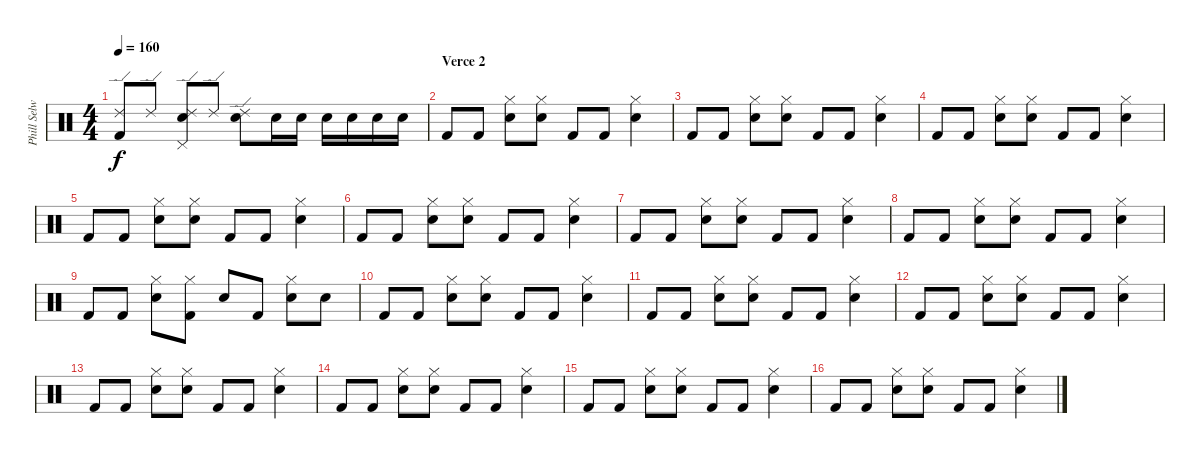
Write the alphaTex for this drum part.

\track ("Phill Selway" "Phill Selw") {instrument percussion}
\staff {score}
\articulation defaults
\ts (4 4)
\tempo 160
\clef neutral
\ks c
("Kick (hit) 2" "Ride (edge) 2").8{dy f} "Ride (edge) 2".8 ("Snare (hit) 2" "Pedal Hi-Hat (hit)" "Ride (edge) 2").8 "Ride (edge) 2".8 ("Snare (hit) 2" "Ride (edge) 2").8 "Snare (hit) 2".16 "Snare (hit) 2".16 "Snare (hit) 2".16 "Snare (hit) 2".16 "Snare (hit) 2".16 "Snare (hit) 2".16 |
\section ("" "Verce 2")
"Kick (hit) 2".8 "Kick (hit) 2".8 ("Snare (hit) 2" "Hi-Hat (closed)").8 ("Snare (hit) 2" "Hi-Hat (closed)").8 "Kick (hit) 2".8 "Kick (hit) 2".8 ("Snare (hit) 2" "Hi-Hat (closed)").4 |
"Kick (hit) 2".8 "Kick (hit) 2".8 ("Snare (hit) 2" "Hi-Hat (closed)").8 ("Snare (hit) 2" "Hi-Hat (closed)").8 "Kick (hit) 2".8 "Kick (hit) 2".8 ("Snare (hit) 2" "Hi-Hat (closed)").4 |
"Kick (hit) 2".8 "Kick (hit) 2".8 ("Snare (hit) 2" "Hi-Hat (closed)").8 ("Snare (hit) 2" "Hi-Hat (closed)").8 "Kick (hit) 2".8 "Kick (hit) 2".8 ("Snare (hit) 2" "Hi-Hat (closed)").4 |
"Kick (hit) 2".8 "Kick (hit) 2".8 ("Snare (hit) 2" "Hi-Hat (closed)").8 ("Snare (hit) 2" "Hi-Hat (closed)").8 "Kick (hit) 2".8 "Kick (hit) 2".8 ("Snare (hit) 2" "Hi-Hat (closed)").4 |
"Kick (hit) 2".8 "Kick (hit) 2".8 ("Snare (hit) 2" "Hi-Hat (closed)").8 ("Snare (hit) 2" "Hi-Hat (closed)").8 "Kick (hit) 2".8 "Kick (hit) 2".8 ("Snare (hit) 2" "Hi-Hat (closed)").4 |
"Kick (hit) 2".8 "Kick (hit) 2".8 ("Snare (hit) 2" "Hi-Hat (closed)").8 ("Snare (hit) 2" "Hi-Hat (closed)").8 "Kick (hit) 2".8 "Kick (hit) 2".8 ("Snare (hit) 2" "Hi-Hat (closed)").4 |
"Kick (hit) 2".8 "Kick (hit) 2".8 ("Snare (hit) 2" "Hi-Hat (closed)").8 ("Snare (hit) 2" "Hi-Hat (closed)").8 "Kick (hit) 2".8 "Kick (hit) 2".8 ("Snare (hit) 2" "Hi-Hat (closed)").4 |
"Kick (hit) 2".8 "Kick (hit) 2".8 ("Snare (hit) 2" "Hi-Hat (closed)").8 ("Kick (hit) 2" "Hi-Hat (closed)").8 "Snare (hit) 2".8 "Kick (hit) 2".8 ("Snare (hit) 2" "Hi-Hat (closed)").8 "Snare (hit) 2".8 |
"Kick (hit) 2".8 "Kick (hit) 2".8 ("Snare (hit) 2" "Hi-Hat (closed)").8 ("Snare (hit) 2" "Hi-Hat (closed)").8 "Kick (hit) 2".8 "Kick (hit) 2".8 ("Snare (hit) 2" "Hi-Hat (closed)").4 |
"Kick (hit) 2".8 "Kick (hit) 2".8 ("Snare (hit) 2" "Hi-Hat (closed)").8 ("Snare (hit) 2" "Hi-Hat (closed)").8 "Kick (hit) 2".8 "Kick (hit) 2".8 ("Snare (hit) 2" "Hi-Hat (closed)").4 |
"Kick (hit) 2".8 "Kick (hit) 2".8 ("Snare (hit) 2" "Hi-Hat (closed)").8 ("Snare (hit) 2" "Hi-Hat (closed)").8 "Kick (hit) 2".8 "Kick (hit) 2".8 ("Snare (hit) 2" "Hi-Hat (closed)").4 |
"Kick (hit) 2".8 "Kick (hit) 2".8 ("Snare (hit) 2" "Hi-Hat (closed)").8 ("Snare (hit) 2" "Hi-Hat (closed)").8 "Kick (hit) 2".8 "Kick (hit) 2".8 ("Snare (hit) 2" "Hi-Hat (closed)").4 |
"Kick (hit) 2".8 "Kick (hit) 2".8 ("Snare (hit) 2" "Hi-Hat (closed)").8 ("Snare (hit) 2" "Hi-Hat (closed)").8 "Kick (hit) 2".8 "Kick (hit) 2".8 ("Snare (hit) 2" "Hi-Hat (closed)").4 |
"Kick (hit) 2".8 "Kick (hit) 2".8 ("Snare (hit) 2" "Hi-Hat (closed)").8 ("Snare (hit) 2" "Hi-Hat (closed)").8 "Kick (hit) 2".8 "Kick (hit) 2".8 ("Snare (hit) 2" "Hi-Hat (closed)").4 |
"Kick (hit) 2".8 "Kick (hit) 2".8 ("Snare (hit) 2" "Hi-Hat (closed)").8 ("Snare (hit) 2" "Hi-Hat (closed)").8 "Kick (hit) 2".8 "Kick (hit) 2".8 ("Snare (hit) 2" "Hi-Hat (closed)").4
